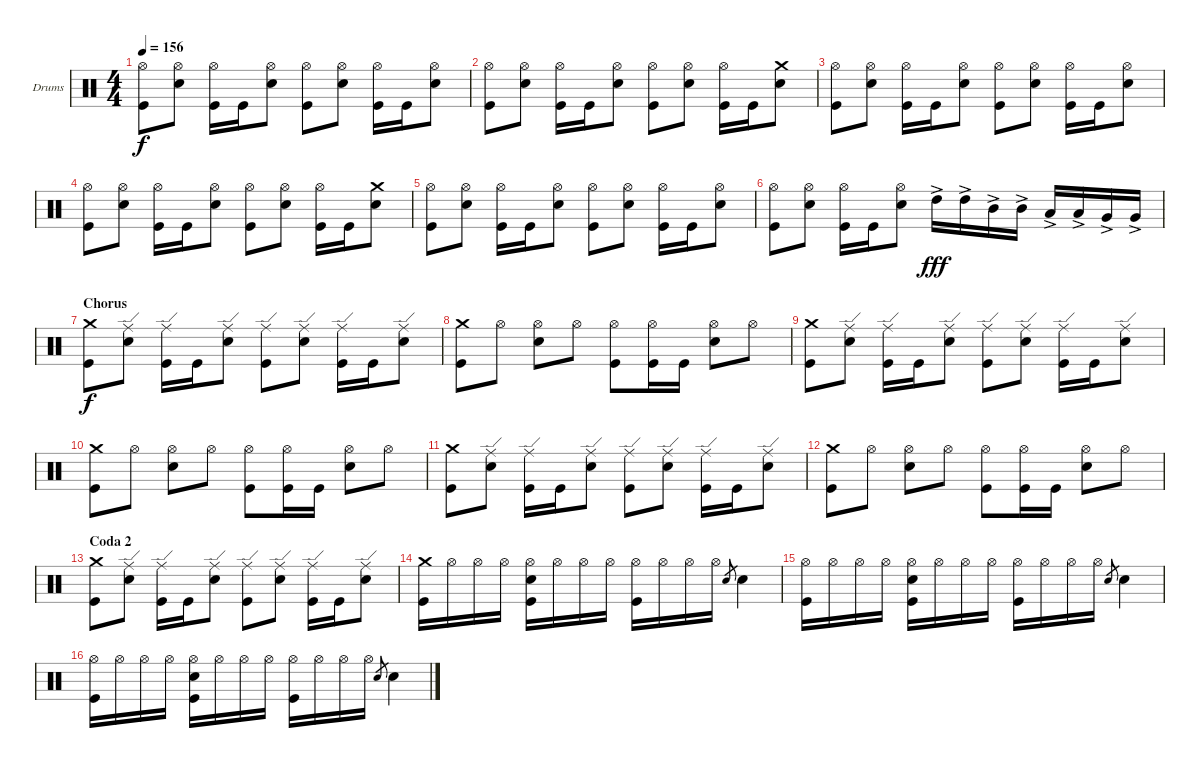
\bracketExtendMode groupsimilarinstruments
\firstSystemTrackNameOrientation horizontal
\otherSystemsTrackNameOrientation horizontal
\track ("Drums" "Drums") {instrument percussion}
\staff {score}
\articulation defaults
\ts (4 4)
\tempo 156
\clef neutral
\ks c
("Hi-Hat (open)" "Kick (hit)").8{dy f} ("Hi-Hat (open)" "Snare (hit) 2").8 ("Hi-Hat (open)" "Kick (hit)").16 "Kick (hit)".16 ("Hi-Hat (open)" "Snare (hit) 2").8 ("Hi-Hat (open)" "Kick (hit)").8 ("Hi-Hat (open)" "Snare (hit) 2").8 ("Hi-Hat (open)" "Kick (hit)").16 "Kick (hit)".16 ("Hi-Hat (open)" "Snare (hit) 2").8 |
("Hi-Hat (open)" "Kick (hit)").8 ("Hi-Hat (open)" "Snare (hit) 2").8 ("Hi-Hat (open)" "Kick (hit)").16 "Kick (hit)".16 ("Hi-Hat (open)" "Snare (hit) 2").8 ("Hi-Hat (open)" "Kick (hit)").8 ("Hi-Hat (open)" "Snare (hit) 2").8 ("Hi-Hat (open)" "Kick (hit)").16 "Kick (hit)".16 ("Crash medium (hit)" "Snare (hit) 2").8 |
("Hi-Hat (open)" "Kick (hit)").8 ("Hi-Hat (open)" "Snare (hit) 2").8 ("Hi-Hat (open)" "Kick (hit)").16 "Kick (hit)".16 ("Hi-Hat (open)" "Snare (hit) 2").8 ("Hi-Hat (open)" "Kick (hit)").8 ("Hi-Hat (open)" "Snare (hit) 2").8 ("Hi-Hat (open)" "Kick (hit)").16 "Kick (hit)".16 ("Hi-Hat (open)" "Snare (hit) 2").8 |
("Hi-Hat (open)" "Kick (hit)").8 ("Hi-Hat (open)" "Snare (hit) 2").8 ("Hi-Hat (open)" "Kick (hit)").16 "Kick (hit)".16 ("Hi-Hat (open)" "Snare (hit) 2").8 ("Hi-Hat (open)" "Kick (hit)").8 ("Hi-Hat (open)" "Snare (hit) 2").8 ("Hi-Hat (open)" "Kick (hit)").16 "Kick (hit)".16 ("Crash medium (hit)" "Snare (hit) 2").8 |
("Hi-Hat (open)" "Kick (hit)").8 ("Hi-Hat (open)" "Snare (hit) 2").8 ("Hi-Hat (open)" "Kick (hit)").16 "Kick (hit)".16 ("Hi-Hat (open)" "Snare (hit) 2").8 ("Hi-Hat (open)" "Kick (hit)").8 ("Hi-Hat (open)" "Snare (hit) 2").8 ("Hi-Hat (open)" "Kick (hit)").16 "Kick (hit)".16 ("Hi-Hat (open)" "Snare (hit) 2").8 |
("Hi-Hat (open)" "Kick (hit)").8 ("Hi-Hat (open)" "Snare (hit) 2").8 ("Hi-Hat (open)" "Kick (hit)").16 "Kick (hit)".16 ("Hi-Hat (open)" "Snare (hit) 2").8 "High Tom (hit)"{ac}.16{dy fff} "High Tom (hit)"{ac}.16 "Mid Tom (hit)"{ac}.16 "Mid Tom (hit)"{ac}.16 "Low Tom (hit)"{ac}.16 "Low Tom (hit)"{ac}.16 "Very Low Tom (hit)"{ac}.16 "Very Low Tom (hit)"{ac}.16 |
\section ("" "Chorus")
("Crash medium (hit)" "Kick (hit)").8{dy f} ("Ride (edge)" "Snare (hit) 2").8 ("Ride (edge)" "Kick (hit)").16 "Kick (hit)".16 ("Ride (edge)" "Snare (hit) 2").8 ("Ride (edge)" "Kick (hit)").8 ("Ride (edge)" "Snare (hit) 2").8 ("Ride (edge)" "Kick (hit)").16 "Kick (hit)".16 ("Ride (edge)" "Snare (hit) 2").8 |
("Crash medium (hit)" "Kick (hit)").8 "Hi-Hat (open)".8 ("Hi-Hat (open)" "Snare (hit) 2").8 "Hi-Hat (open)".8 ("Hi-Hat (open)" "Kick (hit)").8 ("Hi-Hat (open)" "Kick (hit)").16 "Kick (hit)".16 ("Hi-Hat (open)" "Snare (hit) 2").8 "Hi-Hat (open)".8 |
("Crash medium (hit)" "Kick (hit)").8 ("Ride (edge)" "Snare (hit) 2").8 ("Ride (edge)" "Kick (hit)").16 "Kick (hit)".16 ("Ride (edge)" "Snare (hit) 2").8 ("Ride (edge)" "Kick (hit)").8 ("Ride (edge)" "Snare (hit) 2").8 ("Ride (edge)" "Kick (hit)").16 "Kick (hit)".16 ("Ride (edge)" "Snare (hit) 2").8 |
("Crash medium (hit)" "Kick (hit)").8 "Hi-Hat (open)".8 ("Hi-Hat (open)" "Snare (hit) 2").8 "Hi-Hat (open)".8 ("Hi-Hat (open)" "Kick (hit)").8 ("Hi-Hat (open)" "Kick (hit)").16 "Kick (hit)".16 ("Hi-Hat (open)" "Snare (hit) 2").8 "Hi-Hat (open)".8 |
("Crash medium (hit)" "Kick (hit)").8 ("Ride (edge)" "Snare (hit) 2").8 ("Ride (edge)" "Kick (hit)").16 "Kick (hit)".16 ("Ride (edge)" "Snare (hit) 2").8 ("Ride (edge)" "Kick (hit)").8 ("Ride (edge)" "Snare (hit) 2").8 ("Ride (edge)" "Kick (hit)").16 "Kick (hit)".16 ("Ride (edge)" "Snare (hit) 2").8 |
("Crash medium (hit)" "Kick (hit)").8 "Hi-Hat (open)".8 ("Hi-Hat (open)" "Snare (hit) 2").8 "Hi-Hat (open)".8 ("Hi-Hat (open)" "Kick (hit)").8 ("Hi-Hat (open)" "Kick (hit)").16 "Kick (hit)".16 ("Hi-Hat (open)" "Snare (hit) 2").8 "Hi-Hat (open)".8 |
\section ("" "Coda 2")
("Crash medium (hit)" "Kick (hit)").8 ("Ride (edge)" "Snare (hit) 2").8 ("Ride (edge)" "Kick (hit)").16 "Kick (hit)".16 ("Ride (edge)" "Snare (hit) 2").8 ("Ride (edge)" "Kick (hit)").8 ("Ride (edge)" "Snare (hit) 2").8 ("Ride (edge)" "Kick (hit)").16 "Kick (hit)".16 ("Ride (edge)" "Snare (hit) 2").8 |
("Crash medium (hit)" "Kick (hit)").16 "Hi-Hat (open)".16 "Hi-Hat (open)".16 "Hi-Hat (open)".16 ("Hi-Hat (open)" "Snare (hit) 2" "Kick (hit)").16 "Hi-Hat (open)".16 "Hi-Hat (open)".16 "Hi-Hat (open)".16 ("Hi-Hat (open)" "Kick (hit)").16 "Hi-Hat (open)".16 "Hi-Hat (open)".16 "Hi-Hat (open)".16 "Snare (hit) 2".8{gr} "Snare (hit) 2".4 |
("Kick (hit)" "Hi-Hat (open)").16 "Hi-Hat (open)".16 "Hi-Hat (open)".16 "Hi-Hat (open)".16 ("Hi-Hat (open)" "Snare (hit) 2" "Kick (hit)").16 "Hi-Hat (open)".16 "Hi-Hat (open)".16 "Hi-Hat (open)".16 ("Hi-Hat (open)" "Kick (hit)").16 "Hi-Hat (open)".16 "Hi-Hat (open)".16 "Hi-Hat (open)".16 "Snare (hit) 2".8{gr} "Snare (hit) 2".4 |
("Kick (hit)" "Hi-Hat (open)").16 "Hi-Hat (open)".16 "Hi-Hat (open)".16 "Hi-Hat (open)".16 ("Hi-Hat (open)" "Snare (hit) 2" "Kick (hit)").16 "Hi-Hat (open)".16 "Hi-Hat (open)".16 "Hi-Hat (open)".16 ("Hi-Hat (open)" "Kick (hit)").16 "Hi-Hat (open)".16 "Hi-Hat (open)".16 "Hi-Hat (open)".16 "Snare (hit) 2".8{gr} "Snare (hit) 2".4
